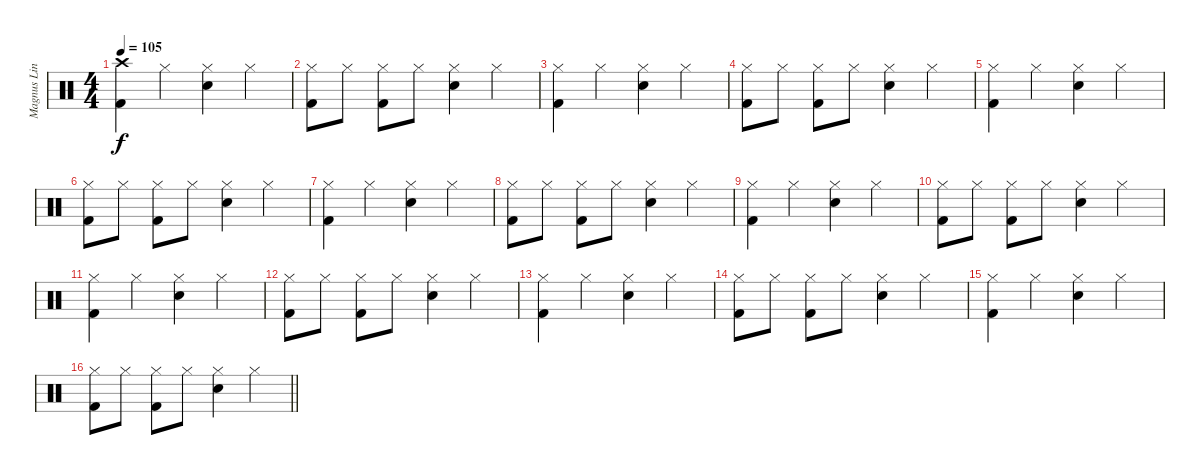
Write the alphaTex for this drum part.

\track ("Magnus Lindberg" "Magnus Lin") {instrument percussion}
\staff {score}
\articulation defaults
\ts (4 4)
\tempo 105
\clef neutral
\ks c
("Crash high (hit)" "Kick (hit) 2").4{dy f} "Hi-Hat (closed)".4 ("Hi-Hat (closed)" "Snare (hit) 2").4 "Hi-Hat (closed)".4 |
("Hi-Hat (closed)" "Kick (hit) 2").8 "Hi-Hat (closed)".8 ("Hi-Hat (closed)" "Kick (hit) 2").8 "Hi-Hat (closed)".8 ("Hi-Hat (closed)" "Snare (hit) 2").4 "Hi-Hat (closed)".4 |
("Hi-Hat (closed)" "Kick (hit) 2").4 "Hi-Hat (closed)".4 ("Hi-Hat (closed)" "Snare (hit) 2").4 "Hi-Hat (closed)".4 |
("Hi-Hat (closed)" "Kick (hit) 2").8 "Hi-Hat (closed)".8 ("Hi-Hat (closed)" "Kick (hit) 2").8 "Hi-Hat (closed)".8 ("Hi-Hat (closed)" "Snare (hit) 2").4 "Hi-Hat (closed)".4 |
("Hi-Hat (closed)" "Kick (hit) 2").4 "Hi-Hat (closed)".4 ("Hi-Hat (closed)" "Snare (hit) 2").4 "Hi-Hat (closed)".4 |
("Hi-Hat (closed)" "Kick (hit) 2").8 "Hi-Hat (closed)".8 ("Hi-Hat (closed)" "Kick (hit) 2").8 "Hi-Hat (closed)".8 ("Hi-Hat (closed)" "Snare (hit) 2").4 "Hi-Hat (closed)".4 |
("Hi-Hat (closed)" "Kick (hit) 2").4 "Hi-Hat (closed)".4 ("Hi-Hat (closed)" "Snare (hit) 2").4 "Hi-Hat (closed)".4 |
("Hi-Hat (closed)" "Kick (hit) 2").8 "Hi-Hat (closed)".8 ("Hi-Hat (closed)" "Kick (hit) 2").8 "Hi-Hat (closed)".8 ("Hi-Hat (closed)" "Snare (hit) 2").4 "Hi-Hat (closed)".4 |
("Hi-Hat (closed)" "Kick (hit) 2").4 "Hi-Hat (closed)".4 ("Hi-Hat (closed)" "Snare (hit) 2").4 "Hi-Hat (closed)".4 |
("Hi-Hat (closed)" "Kick (hit) 2").8 "Hi-Hat (closed)".8 ("Hi-Hat (closed)" "Kick (hit) 2").8 "Hi-Hat (closed)".8 ("Hi-Hat (closed)" "Snare (hit) 2").4 "Hi-Hat (closed)".4 |
("Hi-Hat (closed)" "Kick (hit) 2").4 "Hi-Hat (closed)".4 ("Hi-Hat (closed)" "Snare (hit) 2").4 "Hi-Hat (closed)".4 |
("Hi-Hat (closed)" "Kick (hit) 2").8 "Hi-Hat (closed)".8 ("Hi-Hat (closed)" "Kick (hit) 2").8 "Hi-Hat (closed)".8 ("Hi-Hat (closed)" "Snare (hit) 2").4 "Hi-Hat (closed)".4 |
("Hi-Hat (closed)" "Kick (hit) 2").4 "Hi-Hat (closed)".4 ("Hi-Hat (closed)" "Snare (hit) 2").4 "Hi-Hat (closed)".4 |
("Hi-Hat (closed)" "Kick (hit) 2").8 "Hi-Hat (closed)".8 ("Hi-Hat (closed)" "Kick (hit) 2").8 "Hi-Hat (closed)".8 ("Hi-Hat (closed)" "Snare (hit) 2").4 "Hi-Hat (closed)".4 |
("Hi-Hat (closed)" "Kick (hit) 2").4 "Hi-Hat (closed)".4 ("Hi-Hat (closed)" "Snare (hit) 2").4 "Hi-Hat (closed)".4 |
\barLineRight lightlight
("Hi-Hat (closed)" "Kick (hit) 2").8 "Hi-Hat (closed)".8 ("Hi-Hat (closed)" "Kick (hit) 2").8 "Hi-Hat (closed)".8 ("Hi-Hat (closed)" "Snare (hit) 2").4 "Hi-Hat (closed)".4
